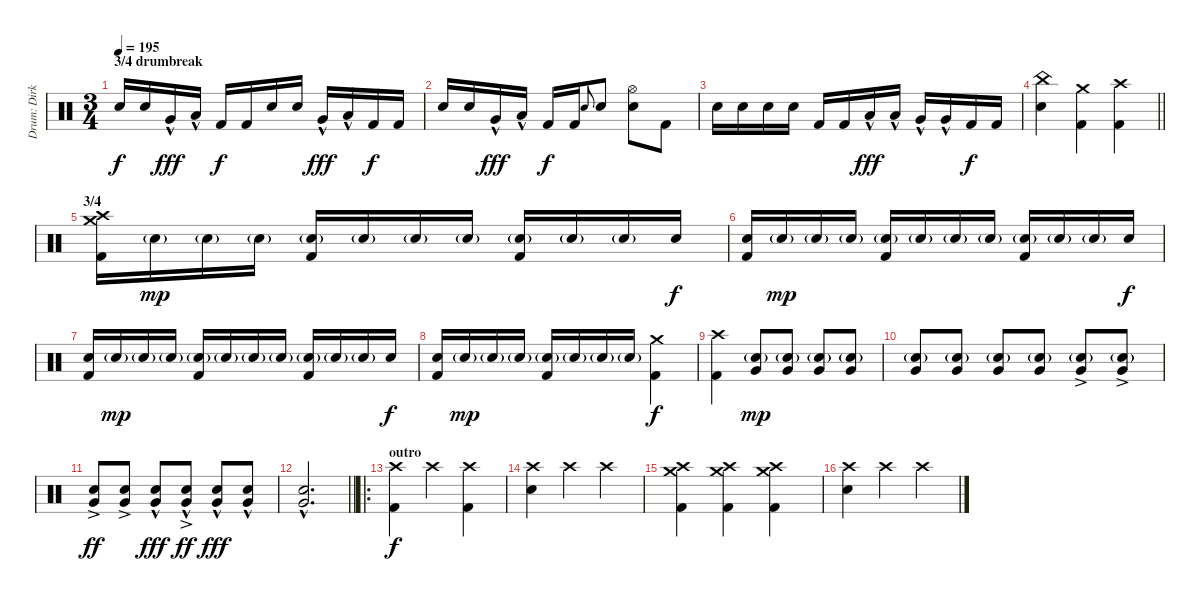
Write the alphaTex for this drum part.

\track ("Drum: Dirk" "Drum: Dirk") {instrument percussion}
\staff {score}
\articulation defaults
\ts (3 4)
\section ("" "3/4 drumbreak")
\tempo 195
\clef neutral
\ks c "Electric Snare (hit)".16{dy f} "Electric Snare (hit)".16 "Very Low Tom (hit)"{hac}.16{dy fff} "Low Tom (hit)"{hac}.16 "Kick (hit) 2".16{dy f} "Kick (hit) 2".16 "Electric Snare (hit)".16 "Electric Snare (hit)".16 "Very Low Tom (hit)"{hac}.16{dy fff} "Low Tom (hit)"{hac}.16 "Kick (hit) 2".16{dy f} "Kick (hit) 2".16
|
"Electric Snare (hit)".16 "Electric Snare (hit)".16 "Very Low Tom (hit)"{hac}.16{dy fff} "Low Tom (hit)"{hac}.16 "Kick (hit) 2".16{dy f} "Kick (hit) 2".16 "Electric Snare (hit)".8{gr onbeat} "Electric Snare (hit)".8 ("Hi-Hat (open)" "Electric Snare (hit)").8 "Kick (hit) 2".8 |
"Electric Snare (hit)".16 "Electric Snare (hit)".16 "Electric Snare (hit)".16 "Electric Snare (hit)".16 "Kick (hit) 2".16 "Kick (hit) 2".16 "Low Tom (hit)"{hac}.16{dy fff} "Low Tom (hit)"{hac}.16 "Very Low Tom (hit)"{hac}.16 "Very Low Tom (hit)"{hac}.16 "Kick (hit) 2".16{dy f} "Kick (hit) 2".16 |
\barLineRight lightlight
("China (hit)" "Electric Snare (hit)").4 ("Crash medium (hit)" "Kick (hit) 2").4 ("Crash high (hit)" "Kick (hit) 2").4 |
\section ("" "3/4")
("Crash high (hit)" "Crash medium (hit)" "Kick (hit) 2").16 "Electric Snare (hit)"{g}.16{dy mp} "Electric Snare (hit)"{g}.16 "Electric Snare (hit)"{g}.16 ("Electric Snare (hit)"{g} "Kick (hit) 2").16 "Electric Snare (hit)"{g}.16 "Electric Snare (hit)"{g}.16 "Electric Snare (hit)"{g}.16 ("Electric Snare (hit)"{g} "Kick (hit) 2").16 "Electric Snare (hit)"{g}.16 "Electric Snare (hit)"{g}.16 "Electric Snare (hit)".16{dy f} |
("Electric Snare (hit)" "Kick (hit) 2").16 "Electric Snare (hit)"{g}.16{dy mp} "Electric Snare (hit)"{g}.16 "Electric Snare (hit)"{g}.16 ("Electric Snare (hit)"{g} "Kick (hit) 2").16 "Electric Snare (hit)"{g}.16 "Electric Snare (hit)"{g}.16 "Electric Snare (hit)"{g}.16 ("Electric Snare (hit)"{g} "Kick (hit) 2").16 "Electric Snare (hit)"{g}.16 "Electric Snare (hit)"{g}.16 "Electric Snare (hit)".16{dy f} |
("Electric Snare (hit)" "Kick (hit) 2").16 "Electric Snare (hit)"{g}.16{dy mp} "Electric Snare (hit)"{g}.16 "Electric Snare (hit)"{g}.16 ("Electric Snare (hit)"{g} "Kick (hit) 2").16 "Electric Snare (hit)"{g}.16 "Electric Snare (hit)"{g}.16 "Electric Snare (hit)"{g}.16 ("Electric Snare (hit)"{g} "Kick (hit) 2").16 "Electric Snare (hit)"{g}.16 "Electric Snare (hit)"{g}.16 "Electric Snare (hit)".16{dy f} |
("Electric Snare (hit)" "Kick (hit) 2").16 "Electric Snare (hit)"{g}.16{dy mp} "Electric Snare (hit)"{g}.16 "Electric Snare (hit)"{g}.16 ("Electric Snare (hit)"{g} "Kick (hit) 2").16 "Electric Snare (hit)"{g}.16 "Electric Snare (hit)"{g}.16 "Electric Snare (hit)"{g}.16 ("Crash medium (hit)" "Kick (hit) 2").4{dy f} |
("Crash high (hit)" "Kick (hit) 2").4 ("Very Low Tom (hit)" "Electric Snare (hit)"{g}).8{dy mp} ("Very Low Tom (hit)" "Electric Snare (hit)"{g}).8 ("Very Low Tom (hit)" "Electric Snare (hit)"{g}).8 ("Very Low Tom (hit)" "Electric Snare (hit)"{g}).8 |
("Very Low Tom (hit)" "Electric Snare (hit)"{g}).8 ("Very Low Tom (hit)" "Electric Snare (hit)"{g}).8 ("Very Low Tom (hit)" "Electric Snare (hit)"{g}).8 ("Very Low Tom (hit)" "Electric Snare (hit)"{g}).8 ("Very Low Tom (hit)"{ac} "Electric Snare (hit)"{g}).8 ("Very Low Tom (hit)"{ac} "Electric Snare (hit)"{g}).8 |
("Very Low Tom (hit)"{ac} "Electric Snare (hit)").8{dy ff} ("Very Low Tom (hit)"{ac} "Electric Snare (hit)").8 ("Very Low Tom (hit)" "Electric Snare (hit)"{hac}).8{dy fff} ("Very Low Tom (hit)"{hac} "Electric Snare (hit)"{ac}).8{dy ff} ("Very Low Tom (hit)"{hac} "Electric Snare (hit)"{hac}).8{dy fff} ("Very Low Tom (hit)"{hac} "Electric Snare (hit)"{hac}).8 |
\barLineRight lightlight
("Very Low Tom (hit)"{hac} "Electric Snare (hit)").2{d} |
\ro
\section ("" "outro")
("Crash high (hit)" "Kick (hit) 2").4{dy f} "Crash high (hit)".4 ("Crash high (hit)" "Kick (hit) 2").4 |
("Crash high (hit)" "Electric Snare (hit)").4 "Crash high (hit)".4 "Crash high (hit)".4 |
("Crash high (hit)" "Crash medium (hit)" "Kick (hit) 2").4 ("Crash high (hit)" "Crash medium (hit)" "Kick (hit) 2").4 ("Crash high (hit)" "Crash medium (hit)" "Kick (hit) 2").4 |
("Crash high (hit)" "Electric Snare (hit)").4 "Crash high (hit)".4 "Crash high (hit)".4
